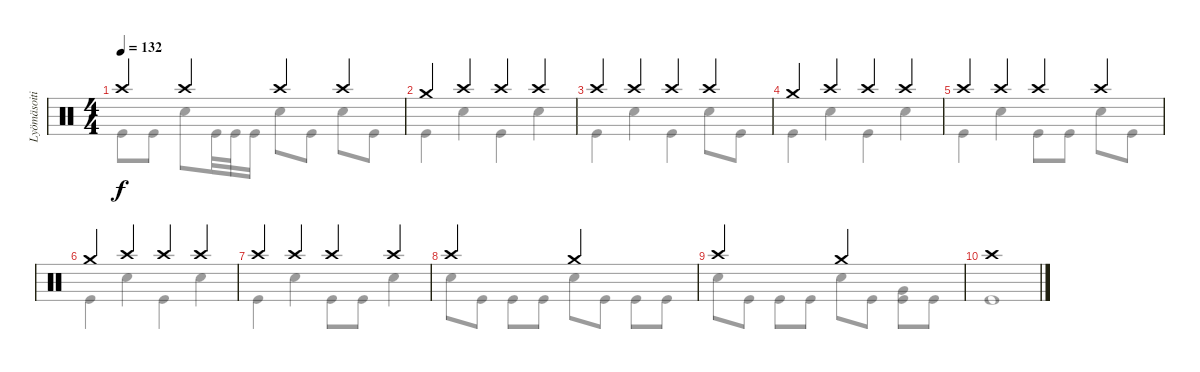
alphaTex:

\track ("Lyömäsoitin" "Lyömäsoiti") {instrument percussion}
\staff {score}
\articulation defaults
\voice
\ts (4 4)
\tempo 132
\clef neutral
\ks c "Crash high (hit)".4{dy f} "Crash high (hit)".4 "Crash high (hit)".4 "Crash high (hit)".4
|
"Crash medium (hit)".4 "Crash high (hit)".4 "Crash high (hit)".4 "Crash high (hit)".4 |
"Crash high (hit)".4 "Crash high (hit)".4 "Crash high (hit)".4 "Crash high (hit)".4 |
"Crash medium (hit)".4 "Crash high (hit)".4 "Crash high (hit)".4 "Crash high (hit)".4 |
"Crash high (hit)".4 "Crash high (hit)".4 "Crash high (hit)".4 "Crash high (hit)".4 |
"Crash medium (hit)".4 "Crash high (hit)".4 "Crash high (hit)".4 "Crash high (hit)".4 |
"Crash high (hit)".4 "Crash high (hit)".4 "Crash high (hit)".4 "Crash high (hit)".4 |
"Crash high (hit)".2 "Crash medium (hit)".2 |
"Crash high (hit)".2 "Crash medium (hit)".2 |
"Crash high (hit)".1
\voice
\clef neutral
\ottava regular
\simile none
\ks c "Kick (hit)".8{dy f} "Kick (hit)".8 "Electric Snare (hit)".8 "Kick (hit)".32 "Kick (hit)".32 "Kick (hit)".16 "Electric Snare (hit)".8 "Kick (hit)".8 "Electric Snare (hit)".8 "Kick (hit)".8
|
"Kick (hit)".4 "Electric Snare (hit)".4 "Kick (hit)".4 "Electric Snare (hit)".4 |
"Kick (hit)".4 "Electric Snare (hit)".4 "Kick (hit)".4 "Electric Snare (hit)".8 "Kick (hit)".8 |
"Kick (hit)".4 "Electric Snare (hit)".4 "Kick (hit)".4 "Electric Snare (hit)".4 |
"Kick (hit)".4 "Electric Snare (hit)".4 "Kick (hit)".8 "Kick (hit)".8 "Electric Snare (hit)".8 "Kick (hit)".8 |
"Kick (hit)".4 "Electric Snare (hit)".4 "Kick (hit)".4 "Electric Snare (hit)".4 |
"Kick (hit)".4 "Electric Snare (hit)".4 "Kick (hit)".8 "Kick (hit)".8 "Electric Snare (hit)".4 |
"Electric Snare (hit)".8 "Kick (hit)".8 "Kick (hit)".8 "Kick (hit)".8 "Electric Snare (hit)".8 "Kick (hit)".8 "Kick (hit)".8 "Kick (hit)".8 |
"Electric Snare (hit)".8 "Kick (hit)".8 "Kick (hit)".8 "Kick (hit)".8 "Electric Snare (hit)".8 "Kick (hit)".8 ("Very Low Tom (hit)" "Kick (hit)").8 "Kick (hit)".8 |
"Kick (hit)".1
